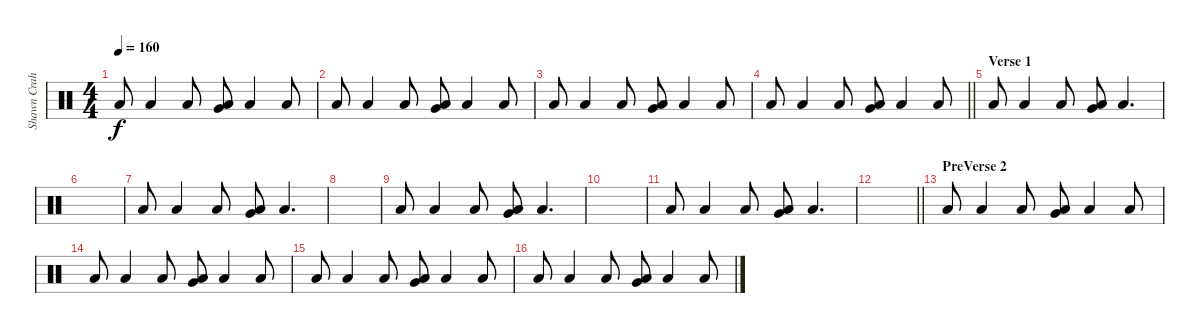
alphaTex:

\track ("Shawn Crahan" "Shawn Crah") {instrument percussion}
\staff {score}
\articulation defaults
\ts (4 4)
\tempo 160
\clef neutral
\ks c "Low Floor Tom (hit)".8{dy f} "Low Floor Tom (hit)".4 "Low Floor Tom (hit)".8
("Very Low Tom (hit)" "Low Floor Tom (hit)").8 "Low Floor Tom (hit)".4 "Low Floor Tom (hit)".8 |
"Low Floor Tom (hit)".8 "Low Floor Tom (hit)".4 "Low Floor Tom (hit)".8 ("Very Low Tom (hit)" "Low Floor Tom (hit)").8 "Low Floor Tom (hit)".4 "Low Floor Tom (hit)".8 |
"Low Floor Tom (hit)".8 "Low Floor Tom (hit)".4 "Low Floor Tom (hit)".8 ("Very Low Tom (hit)" "Low Floor Tom (hit)").8 "Low Floor Tom (hit)".4 "Low Floor Tom (hit)".8 |
\barLineRight lightlight "Low Floor Tom (hit)".8 "Low Floor Tom (hit)".4 "Low Floor Tom (hit)".8
("Very Low Tom (hit)" "Low Floor Tom (hit)").8 "Low Floor Tom (hit)".4 "Low Floor Tom (hit)".8 |
\section ("" "Verse 1")
"Low Floor Tom (hit)".8 "Low Floor Tom (hit)".4 "Low Floor Tom (hit)".8 ("Very Low Tom (hit)" "Low Floor Tom (hit)").8 "Low Floor Tom (hit)".4{d} |
|
"Low Floor Tom (hit)".8 "Low Floor Tom (hit)".4 "Low Floor Tom (hit)".8 ("Very Low Tom (hit)" "Low Floor Tom (hit)").8 "Low Floor Tom (hit)".4{d} |
|
"Low Floor Tom (hit)".8 "Low Floor Tom (hit)".4 "Low Floor Tom (hit)".8 ("Very Low Tom (hit)" "Low Floor Tom (hit)").8 "Low Floor Tom (hit)".4{d} |
|
"Low Floor Tom (hit)".8 "Low Floor Tom (hit)".4 "Low Floor Tom (hit)".8 ("Very Low Tom (hit)" "Low Floor Tom (hit)").8 "Low Floor Tom (hit)".4{d} |
\barLineRight lightlight
|
\section ("" "PreVerse 2")
"Low Floor Tom (hit)".8 "Low Floor Tom (hit)".4 "Low Floor Tom (hit)".8 ("Very Low Tom (hit)" "Low Floor Tom (hit)").8 "Low Floor Tom (hit)".4 "Low Floor Tom (hit)".8 |
"Low Floor Tom (hit)".8 "Low Floor Tom (hit)".4 "Low Floor Tom (hit)".8 ("Very Low Tom (hit)" "Low Floor Tom (hit)").8 "Low Floor Tom (hit)".4 "Low Floor Tom (hit)".8 |
"Low Floor Tom (hit)".8 "Low Floor Tom (hit)".4 "Low Floor Tom (hit)".8 ("Very Low Tom (hit)" "Low Floor Tom (hit)").8 "Low Floor Tom (hit)".4 "Low Floor Tom (hit)".8 |
"Low Floor Tom (hit)".8 "Low Floor Tom (hit)".4 "Low Floor Tom (hit)".8 ("Very Low Tom (hit)" "Low Floor Tom (hit)").8 "Low Floor Tom (hit)".4 "Low Floor Tom (hit)".8
